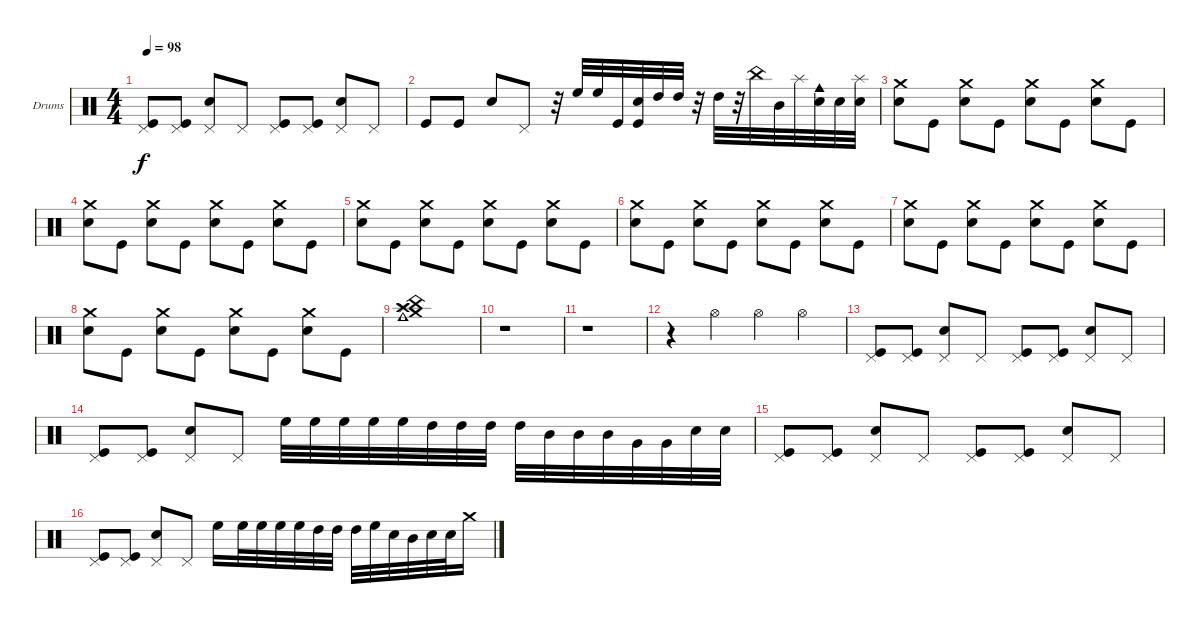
\bracketExtendMode groupsimilarinstruments
\firstSystemTrackNameOrientation horizontal
\otherSystemsTrackNameOrientation horizontal
\track ("Drumkit" "Drums") {instrument percussion}
\staff {score}
\articulation defaults
\ts (4 4)
\tempo 98
\clef neutral
\ks c
("Pedal Hi-Hat (hit)" "Kick (hit)").8{dy f} ("Pedal Hi-Hat (hit)" "Kick (hit)").8 ("Pedal Hi-Hat (hit)" "Snare (hit) 2").8 "Pedal Hi-Hat (hit)".8 ("Pedal Hi-Hat (hit)" "Kick (hit)").8 ("Pedal Hi-Hat (hit)" "Kick (hit)").8 ("Pedal Hi-Hat (hit)" "Snare (hit) 2").8 "Pedal Hi-Hat (hit)".8 |
"Kick (hit)".8 "Kick (hit)".8 "Snare (hit) 2".8 "Pedal Hi-Hat (hit)".8 r.32 "High Floor Tom (hit)".32 "High Floor Tom (hit)".32 "Kick (hit)".32 ("Snare (hit) 2" "Kick (hit)").32 "High Tom (hit)".32 "High Tom (hit)".32 r.32 "High Tom (hit)".32 r.32 "China (hit)".32 "Mid Tom (hit)".32 "Splash (hit)".32 ("Snare (hit) 2" "Cowbell medium (hit)").32 "Snare (hit) 2".32 ("Splash (hit)" "Snare (hit) 2").32 |
("Crash medium (hit)" "Snare (hit) 2").8 "Kick (hit)".8 ("Crash medium (hit)" "Snare (hit) 2").8 "Kick (hit)".8 ("Crash medium (hit)" "Snare (hit) 2").8 "Kick (hit)".8 ("Crash medium (hit)" "Snare (hit) 2").8 "Kick (hit)".8 |
("Crash medium (hit)" "Snare (hit) 2").8 "Kick (hit)".8 ("Crash medium (hit)" "Snare (hit) 2").8 "Kick (hit)".8 ("Crash medium (hit)" "Snare (hit) 2").8 "Kick (hit)".8 ("Crash medium (hit)" "Snare (hit) 2").8 "Kick (hit)".8 |
("Crash medium (hit)" "Snare (hit) 2").8 "Kick (hit)".8 ("Crash medium (hit)" "Snare (hit) 2").8 "Kick (hit)".8 ("Crash medium (hit)" "Snare (hit) 2").8 "Kick (hit)".8 ("Crash medium (hit)" "Snare (hit) 2").8 "Kick (hit)".8 |
("Crash medium (hit)" "Snare (hit) 2").8 "Kick (hit)".8 ("Crash medium (hit)" "Snare (hit) 2").8 "Kick (hit)".8 ("Crash medium (hit)" "Snare (hit) 2").8 "Kick (hit)".8 ("Crash medium (hit)" "Snare (hit) 2").8 "Kick (hit)".8 |
("Crash medium (hit)" "Snare (hit) 2").8 "Kick (hit)".8 ("Crash medium (hit)" "Snare (hit) 2").8 "Kick (hit)".8 ("Crash medium (hit)" "Snare (hit) 2").8 "Kick (hit)".8 ("Crash medium (hit)" "Snare (hit) 2").8 "Kick (hit)".8 |
("Crash medium (hit)" "Snare (hit) 2").8 "Kick (hit)".8 ("Crash medium (hit)" "Snare (hit) 2").8 "Kick (hit)".8 ("Crash medium (hit)" "Snare (hit) 2").8 "Kick (hit)".8 ("Crash medium (hit)" "Snare (hit) 2").8 "Kick (hit)".8 |
("Cowbell medium (hit)" "Crash medium (hit)" "Crash high (hit)" "China (hit)" "Splash (hit)").1 |
r.1 |
r.1 |
r.4 "Hi-Hat (open)".4 "Hi-Hat (open)".4 "Hi-Hat (open)".4 |
("Pedal Hi-Hat (hit)" "Kick (hit)").8 ("Pedal Hi-Hat (hit)" "Kick (hit)").8 ("Pedal Hi-Hat (hit)" "Snare (hit) 2").8 "Pedal Hi-Hat (hit)".8 ("Pedal Hi-Hat (hit)" "Kick (hit)").8 ("Pedal Hi-Hat (hit)" "Kick (hit)").8 ("Pedal Hi-Hat (hit)" "Snare (hit) 2").8 "Pedal Hi-Hat (hit)".8 |
("Pedal Hi-Hat (hit)" "Kick (hit)").8 ("Pedal Hi-Hat (hit)" "Kick (hit)").8 ("Pedal Hi-Hat (hit)" "Snare (hit) 2").8 "Pedal Hi-Hat (hit)".8 "High Floor Tom (hit)".32 "High Floor Tom (hit)".32 "High Floor Tom (hit)".32 "High Floor Tom (hit)".32 "High Floor Tom (hit)".32 "High Tom (hit)".32 "High Tom (hit)".32 "High Tom (hit)".32 "High Tom (hit)".32 "Mid Tom (hit)".32 "Mid Tom (hit)".32 "Mid Tom (hit)".32 "Very Low Tom (hit)".32 "Very Low Tom (hit)".32 "Snare (hit) 2".32 "Snare (hit) 2".32 |
("Pedal Hi-Hat (hit)" "Kick (hit)").8 ("Pedal Hi-Hat (hit)" "Kick (hit)").8 ("Pedal Hi-Hat (hit)" "Snare (hit) 2").8 "Pedal Hi-Hat (hit)".8 ("Pedal Hi-Hat (hit)" "Kick (hit)").8 ("Pedal Hi-Hat (hit)" "Kick (hit)").8 ("Pedal Hi-Hat (hit)" "Snare (hit) 2").8 "Pedal Hi-Hat (hit)".8 |
("Pedal Hi-Hat (hit)" "Kick (hit)").8 ("Pedal Hi-Hat (hit)" "Kick (hit)").8 ("Pedal Hi-Hat (hit)" "Snare (hit) 2").8 "Pedal Hi-Hat (hit)".8 "High Floor Tom (hit)".16 "High Floor Tom (hit)".32 "High Floor Tom (hit)".32 "High Floor Tom (hit)".32 "High Floor Tom (hit)".32 "High Tom (hit)".32 "High Tom (hit)".32 "High Tom (hit)".32 "High Floor Tom (hit)".32 "Snare (hit) 2".32 "Mid Tom (hit)".32 "Snare (hit) 2".32 "Snare (hit) 2".32 "Crash medium (hit)".16
